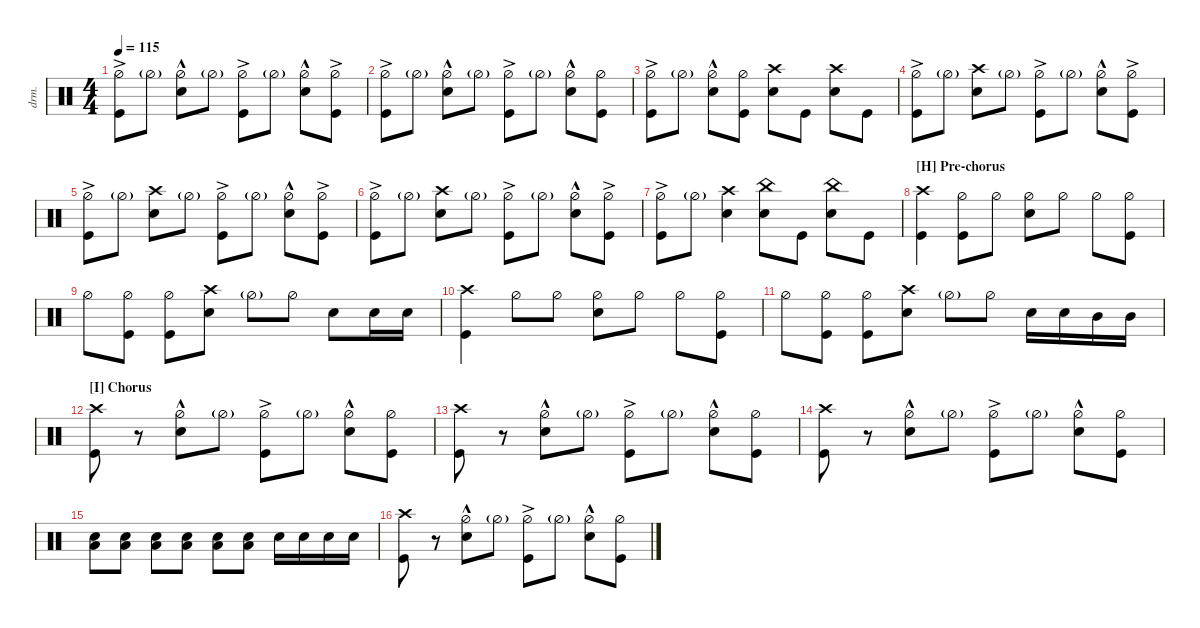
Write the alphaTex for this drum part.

\defaultSystemsLayout 4
\hideDynamics
\bracketExtendMode nobrackets
\otherSystemsTrackNameOrientation horizontal
\track ("Drums" "drm.") {multiBarRest instrument percussion}
\staff
\articulation defaults
\ts (4 4)
\tempo 115
\clef neutral
\ks c
("Kick (hit)" "Hi-Hat (half)"{ac}).8{dy f} "Hi-Hat (half)"{g}.8 ("Hi-Hat (half)"{hac} "Snare (hit) 2").8 "Hi-Hat (half)"{g}.8 ("Kick (hit)" "Hi-Hat (half)"{ac}).8 "Hi-Hat (half)"{g}.8 ("Hi-Hat (half)"{hac} "Snare (hit) 2").8 ("Hi-Hat (half)"{ac} "Kick (hit)").8 |
("Kick (hit)" "Hi-Hat (half)"{ac}).8 "Hi-Hat (half)"{g}.8 ("Hi-Hat (half)"{hac} "Snare (hit) 2").8 "Hi-Hat (half)"{g}.8 ("Kick (hit)" "Hi-Hat (half)"{ac}).8 "Hi-Hat (half)"{g}.8 ("Hi-Hat (half)"{hac} "Snare (hit) 2").8 ("Hi-Hat (half)" "Kick (hit)").8 |
("Kick (hit)" "Hi-Hat (half)"{ac}).8 "Hi-Hat (half)"{g}.8 ("Hi-Hat (half)"{hac} "Snare (hit) 2").8 ("Hi-Hat (half)" "Kick (hit)").8 ("Snare (hit) 2" "Crash high (hit)").8 "Kick (hit)".8 ("Snare (hit) 2" "Crash high (hit)").8 "Kick (hit)".8 |
("Kick (hit)" "Hi-Hat (half)"{ac}).8 "Hi-Hat (half)"{g}.8 ("Snare (hit) 2" "Crash high (hit)").8 "Hi-Hat (half)"{g}.8 ("Kick (hit)" "Hi-Hat (half)"{ac}).8 "Hi-Hat (half)"{g}.8 ("Hi-Hat (half)"{hac} "Snare (hit) 2").8 ("Hi-Hat (half)"{ac} "Kick (hit)").8 |
("Kick (hit)" "Hi-Hat (half)"{ac}).8 "Hi-Hat (half)"{g}.8 ("Snare (hit) 2" "Crash high (hit)").8 "Hi-Hat (half)"{g}.8 ("Kick (hit)" "Hi-Hat (half)"{ac}).8 "Hi-Hat (half)"{g}.8 ("Hi-Hat (half)"{hac} "Snare (hit) 2").8 ("Hi-Hat (half)"{ac} "Kick (hit)").8 |
("Kick (hit)" "Hi-Hat (half)"{ac}).8 "Hi-Hat (half)"{g}.8 ("Snare (hit) 2" "Crash high (hit)").8 "Hi-Hat (half)"{g}.8 ("Kick (hit)" "Hi-Hat (half)"{ac}).8 "Hi-Hat (half)"{g}.8 ("Hi-Hat (half)"{hac} "Snare (hit) 2").8 ("Hi-Hat (half)"{ac} "Kick (hit)").8 |
("Kick (hit)" "Hi-Hat (half)"{ac}).8 "Hi-Hat (half)"{g}.8 ("Snare (hit) 2" "Crash high (hit)").4 ("Snare (hit) 2" "China (hit)").8 "Kick (hit)".8 ("Snare (hit) 2" "China (hit)").8 "Kick (hit)".8 |
\section ("H" "Pre-chorus")
("Kick (hit)" "Crash high (hit)").4 ("Kick (hit)" "Hi-Hat (half)").8 "Hi-Hat (half)".8 ("Hi-Hat (half)" "Snare (hit) 2").8 "Hi-Hat (half)".8 "Hi-Hat (half)".8 ("Kick (hit)" "Hi-Hat (half)").8 |
"Hi-Hat (half)".8 ("Hi-Hat (half)" "Kick (hit)").8 ("Hi-Hat (half)" "Kick (hit)").8 ("Snare (hit) 2" "Crash high (hit)").8 "Hi-Hat (half)"{g}.8 "Hi-Hat (half)".8 "Snare (hit) 2".8 "Snare (hit) 2".16 "Snare (hit) 2".16 |
("Kick (hit)" "Crash high (hit)").4 "Hi-Hat (half)".8 "Hi-Hat (half)".8 ("Hi-Hat (half)" "Snare (hit) 2").8 "Hi-Hat (half)".8 "Hi-Hat (half)".8 ("Kick (hit)" "Hi-Hat (half)").8 |
"Hi-Hat (half)".8 ("Hi-Hat (half)" "Kick (hit)").8 ("Hi-Hat (half)" "Kick (hit)").8 ("Snare (hit) 2" "Crash high (hit)").8 "Hi-Hat (half)"{g}.8 "Hi-Hat (half)".8 "Snare (hit) 2".16 "Snare (hit) 2".16 "Mid Tom (hit)".16{dy ff} "Mid Tom (hit)".16 |
\section ("I" "Chorus")
("Kick (hit)" "Crash high (hit)").8{dy f} r.8 ("Hi-Hat (half)"{hac} "Snare (hit) 2").8 "Hi-Hat (half)"{g}.8 ("Kick (hit)" "Hi-Hat (half)"{ac}).8 "Hi-Hat (half)"{g}.8 ("Hi-Hat (half)"{hac} "Snare (hit) 2").8 ("Hi-Hat (half)" "Kick (hit)").8 |
("Kick (hit)" "Crash high (hit)").8 r.8 ("Hi-Hat (half)"{hac} "Snare (hit) 2").8 "Hi-Hat (half)"{g}.8 ("Kick (hit)" "Hi-Hat (half)"{ac}).8 "Hi-Hat (half)"{g}.8 ("Hi-Hat (half)"{hac} "Snare (hit) 2").8 ("Hi-Hat (half)" "Kick (hit)").8 |
("Kick (hit)" "Crash high (hit)").8 r.8 ("Hi-Hat (half)"{hac} "Snare (hit) 2").8 "Hi-Hat (half)"{g}.8 ("Kick (hit)" "Hi-Hat (half)"{ac}).8 "Hi-Hat (half)"{g}.8 ("Hi-Hat (half)"{hac} "Snare (hit) 2").8 ("Hi-Hat (half)" "Kick (hit)").8 |
("Snare (hit) 2" "Low Tom (hit)").8{dy mf} ("Snare (hit) 2" "Low Tom (hit)").8 ("Snare (hit) 2" "Low Tom (hit)").8 ("Snare (hit) 2" "Low Tom (hit)").8{dy f} ("Snare (hit) 2" "Low Tom (hit)").8 ("Snare (hit) 2" "Low Tom (hit)").8 "Snare (hit) 2".16 "Snare (hit) 2".16 "Snare (hit) 2".16 "Snare (hit) 2".16 |
("Kick (hit)" "Crash high (hit)").8 r.8 ("Hi-Hat (half)"{hac} "Snare (hit) 2").8 "Hi-Hat (half)"{g}.8 ("Kick (hit)" "Hi-Hat (half)"{ac}).8 "Hi-Hat (half)"{g}.8 ("Hi-Hat (half)"{hac} "Snare (hit) 2").8 ("Hi-Hat (half)" "Kick (hit)").8
